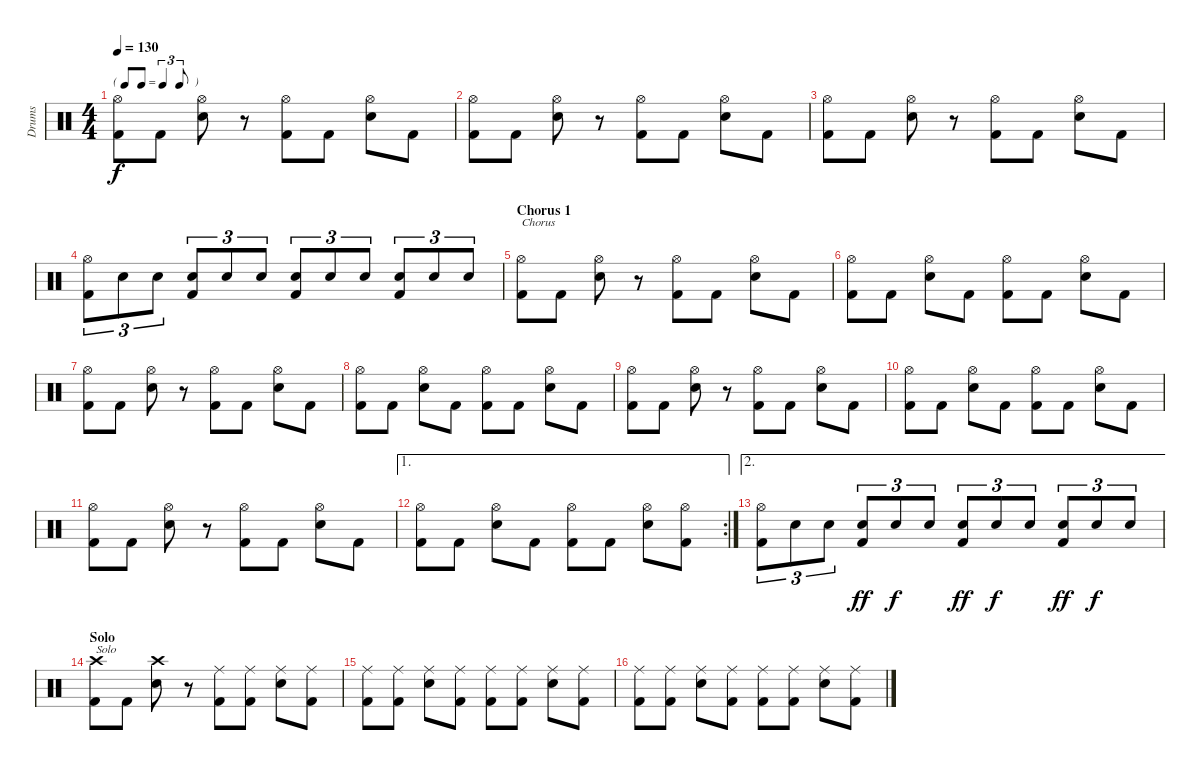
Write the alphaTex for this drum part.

\track ("Drums" "Drums") {instrument percussion}
\staff {score}
\articulation defaults
\ts (4 4)
\tf triplet8th
\tempo 130
\clef neutral
\ks c
("Hi-Hat (open)" "Kick (hit) 2").8{dy f} "Kick (hit) 2".8 ("Hi-Hat (open)" "Electric Snare (hit)").8 r.8 ("Hi-Hat (open)" "Kick (hit) 2").8 "Kick (hit) 2".8 ("Hi-Hat (open)" "Electric Snare (hit)").8 "Kick (hit) 2".8 |
("Hi-Hat (open)" "Kick (hit) 2").8 "Kick (hit) 2".8 ("Hi-Hat (open)" "Electric Snare (hit)").8 r.8 ("Hi-Hat (open)" "Kick (hit) 2").8 "Kick (hit) 2".8 ("Hi-Hat (open)" "Electric Snare (hit)").8 "Kick (hit) 2".8 |
("Hi-Hat (open)" "Kick (hit) 2").8 "Kick (hit) 2".8 ("Hi-Hat (open)" "Electric Snare (hit)").8 r.8 ("Hi-Hat (open)" "Kick (hit) 2").8 "Kick (hit) 2".8 ("Hi-Hat (open)" "Electric Snare (hit)").8 "Kick (hit) 2".8 |
("Hi-Hat (open)" "Kick (hit) 2").8{tu (3 2)} "Electric Snare (hit)".8{tu (3 2)} "Electric Snare (hit)".8{tu (3 2)} ("Electric Snare (hit)" "Kick (hit) 2").8{tu (3 2)} "Electric Snare (hit)".8{tu (3 2)} "Electric Snare (hit)".8{tu (3 2)} ("Electric Snare (hit)" "Kick (hit) 2").8{tu (3 2)} "Electric Snare (hit)".8{tu (3 2)} "Electric Snare (hit)".8{tu (3 2)} ("Electric Snare (hit)" "Kick (hit) 2").8{tu (3 2)} "Electric Snare (hit)".8{tu (3 2)} "Electric Snare (hit)".8{tu (3 2)} |
\section ("" "Chorus 1")
("Hi-Hat (open)" "Kick (hit) 2").8{txt "Chorus"} "Kick (hit) 2".8 ("Hi-Hat (open)" "Electric Snare (hit)").8 r.8 ("Hi-Hat (open)" "Kick (hit) 2").8 "Kick (hit) 2".8 ("Hi-Hat (open)" "Electric Snare (hit)").8 "Kick (hit) 2".8 |
("Hi-Hat (open)" "Kick (hit) 2").8 "Kick (hit) 2".8 ("Hi-Hat (open)" "Electric Snare (hit)").8 "Kick (hit) 2".8 ("Hi-Hat (open)" "Kick (hit) 2").8 "Kick (hit) 2".8 ("Hi-Hat (open)" "Electric Snare (hit)").8 "Kick (hit) 2".8 |
("Hi-Hat (open)" "Kick (hit) 2").8 "Kick (hit) 2".8 ("Hi-Hat (open)" "Electric Snare (hit)").8 r.8 ("Hi-Hat (open)" "Kick (hit) 2").8 "Kick (hit) 2".8 ("Hi-Hat (open)" "Electric Snare (hit)").8 "Kick (hit) 2".8 |
("Hi-Hat (open)" "Kick (hit) 2").8 "Kick (hit) 2".8 ("Hi-Hat (open)" "Electric Snare (hit)").8 "Kick (hit) 2".8 ("Hi-Hat (open)" "Kick (hit) 2").8 "Kick (hit) 2".8 ("Hi-Hat (open)" "Electric Snare (hit)").8 "Kick (hit) 2".8 |
("Hi-Hat (open)" "Kick (hit) 2").8 "Kick (hit) 2".8 ("Hi-Hat (open)" "Electric Snare (hit)").8 r.8 ("Hi-Hat (open)" "Kick (hit) 2").8 "Kick (hit) 2".8 ("Hi-Hat (open)" "Electric Snare (hit)").8 "Kick (hit) 2".8 |
("Hi-Hat (open)" "Kick (hit) 2").8 "Kick (hit) 2".8 ("Hi-Hat (open)" "Electric Snare (hit)").8 "Kick (hit) 2".8 ("Hi-Hat (open)" "Kick (hit) 2").8 "Kick (hit) 2".8 ("Hi-Hat (open)" "Electric Snare (hit)").8 "Kick (hit) 2".8 |
("Hi-Hat (open)" "Kick (hit) 2").8 "Kick (hit) 2".8 ("Hi-Hat (open)" "Electric Snare (hit)").8 r.8 ("Hi-Hat (open)" "Kick (hit) 2").8 "Kick (hit) 2".8 ("Hi-Hat (open)" "Electric Snare (hit)").8 "Kick (hit) 2".8 |
\ae 1
\rc 2
("Hi-Hat (open)" "Kick (hit) 2").8 "Kick (hit) 2".8 ("Hi-Hat (open)" "Electric Snare (hit)").8 "Kick (hit) 2".8 ("Hi-Hat (open)" "Kick (hit) 2").8 "Kick (hit) 2".8 ("Hi-Hat (open)" "Electric Snare (hit)").8 ("Hi-Hat (open)" "Kick (hit) 2").8 |
\ae 2
("Hi-Hat (open)" "Kick (hit) 2").8{tu (3 2)} "Electric Snare (hit)".8{tu (3 2)} "Electric Snare (hit)".8{tu (3 2)} ("Electric Snare (hit)" "Kick (hit) 2").8{tu (3 2) dy ff} "Electric Snare (hit)".8{tu (3 2) dy f} "Electric Snare (hit)".8{tu (3 2)} ("Electric Snare (hit)" "Kick (hit) 2").8{tu (3 2) dy ff} "Electric Snare (hit)".8{tu (3 2) dy f} "Electric Snare (hit)".8{tu (3 2)} ("Electric Snare (hit)" "Kick (hit) 2").8{tu (3 2) dy ff} "Electric Snare (hit)".8{tu (3 2) dy f} "Electric Snare (hit)".8{tu (3 2)} |
\section ("" "Solo")
("Crash high (hit)" "Kick (hit) 2").8{txt "Solo"} "Kick (hit) 2".8 ("Crash high (hit)" "Electric Snare (hit)").8 r.8 ("Ride (middle)" "Kick (hit) 2").8 ("Ride (middle)" "Kick (hit) 2").8 ("Ride (middle)" "Electric Snare (hit)").8 ("Ride (middle)" "Kick (hit) 2").8 |
("Ride (middle)" "Kick (hit) 2").8 ("Ride (middle)" "Kick (hit) 2").8 ("Ride (middle)" "Electric Snare (hit)").8 ("Ride (middle)" "Kick (hit) 2").8 ("Ride (middle)" "Kick (hit) 2").8 ("Ride (middle)" "Kick (hit) 2").8 ("Ride (middle)" "Electric Snare (hit)").8 ("Ride (middle)" "Kick (hit) 2").8 |
("Ride (middle)" "Kick (hit) 2").8 ("Ride (middle)" "Kick (hit) 2").8 ("Ride (middle)" "Electric Snare (hit)").8 ("Ride (middle)" "Kick (hit) 2").8 ("Ride (middle)" "Kick (hit) 2").8 ("Ride (middle)" "Kick (hit) 2").8 ("Ride (middle)" "Electric Snare (hit)").8 ("Ride (middle)" "Kick (hit) 2").8
